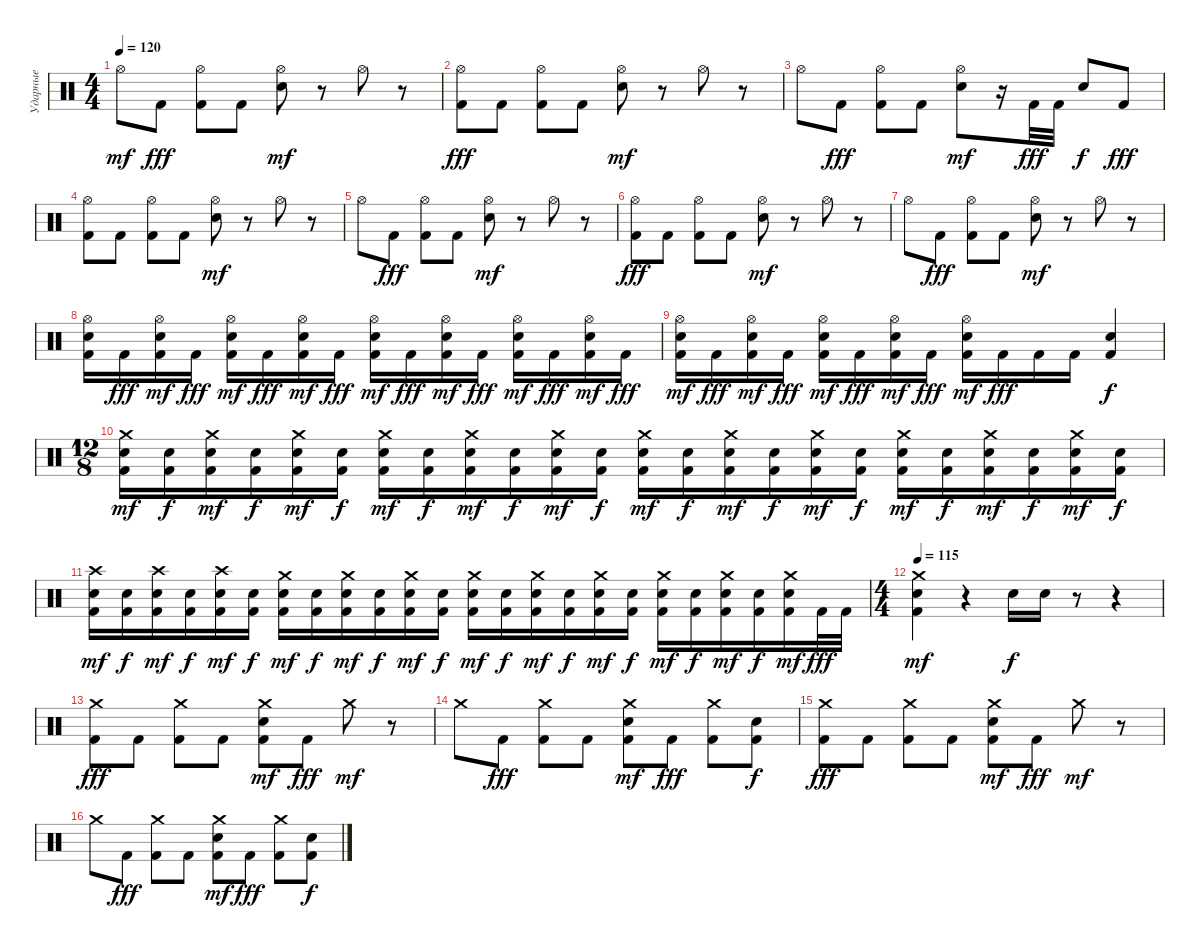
\track ("Ударные" "Ударные") {instrument percussion}
\staff {score}
\articulation defaults
\ts (4 4)
\tempo 120
\clef neutral
\ks c "Hi-Hat (open)".8{dy mf} "Kick (hit) 2".8{dy fff}
("Hi-Hat (open)" "Kick (hit) 2").8 "Kick (hit) 2".8 ("Hi-Hat (open)" "Electric Snare (hit)").8{dy mf} r.8 "Hi-Hat (open)".8 r.8 |
("Hi-Hat (open)" "Kick (hit) 2").8{dy fff} "Kick (hit) 2".8 ("Hi-Hat (open)" "Kick (hit) 2").8 "Kick (hit) 2".8 ("Hi-Hat (open)" "Electric Snare (hit)").8{dy mf} r.8 "Hi-Hat (open)".8 r.8 |
"Hi-Hat (open)".8 "Kick (hit) 2".8{dy fff} ("Hi-Hat (open)" "Kick (hit) 2").8 "Kick (hit) 2".8 ("Hi-Hat (open)" "Electric Snare (hit)").8{dy mf} r.16 "Kick (hit) 2".32{dy fff} "Kick (hit) 2".32 "Electric Snare (hit)".8{dy f} "Kick (hit) 2".8{dy fff} |
("Hi-Hat (open)" "Kick (hit) 2").8 "Kick (hit) 2".8 ("Hi-Hat (open)" "Kick (hit) 2").8 "Kick (hit) 2".8 ("Hi-Hat (open)" "Electric Snare (hit)").8{dy mf} r.8 "Hi-Hat (open)".8 r.8 |
"Hi-Hat (open)".8 "Kick (hit) 2".8{dy fff} ("Hi-Hat (open)" "Kick (hit) 2").8 "Kick (hit) 2".8 ("Hi-Hat (open)" "Electric Snare (hit)").8{dy mf} r.8 "Hi-Hat (open)".8 r.8 |
("Hi-Hat (open)" "Kick (hit) 2").8{dy fff} "Kick (hit) 2".8 ("Hi-Hat (open)" "Kick (hit) 2").8 "Kick (hit) 2".8 ("Hi-Hat (open)" "Electric Snare (hit)").8{dy mf} r.8 "Hi-Hat (open)".8 r.8 |
"Hi-Hat (open)".8 "Kick (hit) 2".8{dy fff} ("Hi-Hat (open)" "Kick (hit) 2").8 "Kick (hit) 2".8 ("Hi-Hat (open)" "Electric Snare (hit)").8{dy mf} r.8 "Hi-Hat (open)".8 r.8 |
("Hi-Hat (open)" "Electric Snare (hit)" "Kick (hit) 2").16 "Kick (hit) 2".16{dy fff} ("Hi-Hat (open)" "Electric Snare (hit)" "Kick (hit) 2").16{dy mf} "Kick (hit) 2".16{dy fff} ("Hi-Hat (open)" "Electric Snare (hit)" "Kick (hit) 2").16{dy mf} "Kick (hit) 2".16{dy fff} ("Hi-Hat (open)" "Electric Snare (hit)" "Kick (hit) 2").16{dy mf} "Kick (hit) 2".16{dy fff} ("Hi-Hat (open)" "Electric Snare (hit)" "Kick (hit) 2").16{dy mf} "Kick (hit) 2".16{dy fff} ("Hi-Hat (open)" "Electric Snare (hit)" "Kick (hit) 2").16{dy mf} "Kick (hit) 2".16{dy fff} ("Hi-Hat (open)" "Electric Snare (hit)" "Kick (hit) 2").16{dy mf} "Kick (hit) 2".16{dy fff} ("Hi-Hat (open)" "Electric Snare (hit)" "Kick (hit) 2").16{dy mf} "Kick (hit) 2".16{dy fff} |
("Hi-Hat (open)" "Electric Snare (hit)" "Kick (hit) 2").16{dy mf} "Kick (hit) 2".16{dy fff} ("Hi-Hat (open)" "Electric Snare (hit)" "Kick (hit) 2").16{dy mf} "Kick (hit) 2".16{dy fff} ("Hi-Hat (open)" "Electric Snare (hit)" "Kick (hit) 2").16{dy mf} "Kick (hit) 2".16{dy fff} ("Hi-Hat (open)" "Electric Snare (hit)" "Kick (hit) 2").16{dy mf} "Kick (hit) 2".16{dy fff} ("Hi-Hat (open)" "Electric Snare (hit)" "Kick (hit) 2").16{dy mf} "Kick (hit) 2".16{dy fff} "Kick (hit) 2".16 "Kick (hit) 2".16 ("Electric Snare (hit)" "Kick (hit) 2").4{dy f} |
\ts (12 8)
("Crash medium (hit)" "Electric Snare (hit)" "Kick (hit) 2").16{dy mf} ("Electric Snare (hit)" "Kick (hit) 2").16{dy f} ("Crash medium (hit)" "Electric Snare (hit)" "Kick (hit) 2").16{dy mf} ("Electric Snare (hit)" "Kick (hit) 2").16{dy f} ("Crash medium (hit)" "Electric Snare (hit)" "Kick (hit) 2").16{dy mf} ("Electric Snare (hit)" "Kick (hit) 2").16{dy f} ("Crash medium (hit)" "Electric Snare (hit)" "Kick (hit) 2").16{dy mf} ("Electric Snare (hit)" "Kick (hit) 2").16{dy f} ("Crash medium (hit)" "Electric Snare (hit)" "Kick (hit) 2").16{dy mf} ("Electric Snare (hit)" "Kick (hit) 2").16{dy f} ("Crash medium (hit)" "Electric Snare (hit)" "Kick (hit) 2").16{dy mf} ("Electric Snare (hit)" "Kick (hit) 2").16{dy f} ("Crash medium (hit)" "Electric Snare (hit)" "Kick (hit) 2").16{dy mf} ("Electric Snare (hit)" "Kick (hit) 2").16{dy f} ("Crash medium (hit)" "Electric Snare (hit)" "Kick (hit) 2").16{dy mf} ("Electric Snare (hit)" "Kick (hit) 2").16{dy f} ("Crash medium (hit)" "Electric Snare (hit)" "Kick (hit) 2").16{dy mf} ("Electric Snare (hit)" "Kick (hit) 2").16{dy f} ("Crash medium (hit)" "Electric Snare (hit)" "Kick (hit) 2").16{dy mf} ("Electric Snare (hit)" "Kick (hit) 2").16{dy f} ("Crash medium (hit)" "Electric Snare (hit)" "Kick (hit) 2").16{dy mf} ("Electric Snare (hit)" "Kick (hit) 2").16{dy f} ("Crash medium (hit)" "Electric Snare (hit)" "Kick (hit) 2").16{dy mf} ("Electric Snare (hit)" "Kick (hit) 2").16{dy f} |
("Crash high (hit)" "Electric Snare (hit)" "Kick (hit) 2").16{dy mf} ("Electric Snare (hit)" "Kick (hit) 2").16{dy f} ("Crash high (hit)" "Electric Snare (hit)" "Kick (hit) 2").16{dy mf} ("Electric Snare (hit)" "Kick (hit) 2").16{dy f} ("Crash high (hit)" "Electric Snare (hit)" "Kick (hit) 2").16{dy mf} ("Electric Snare (hit)" "Kick (hit) 2").16{dy f} ("Crash medium (hit)" "Electric Snare (hit)" "Kick (hit) 2").16{dy mf} ("Electric Snare (hit)" "Kick (hit) 2").16{dy f} ("Crash medium (hit)" "Electric Snare (hit)" "Kick (hit) 2").16{dy mf} ("Electric Snare (hit)" "Kick (hit) 2").16{dy f} ("Crash medium (hit)" "Electric Snare (hit)" "Kick (hit) 2").16{dy mf} ("Electric Snare (hit)" "Kick (hit) 2").16{dy f} ("Crash medium (hit)" "Electric Snare (hit)" "Kick (hit) 2").16{dy mf} ("Electric Snare (hit)" "Kick (hit) 2").16{dy f} ("Crash medium (hit)" "Electric Snare (hit)" "Kick (hit) 2").16{dy mf} ("Electric Snare (hit)" "Kick (hit) 2").16{dy f} ("Crash medium (hit)" "Electric Snare (hit)" "Kick (hit) 2").16{dy mf} ("Electric Snare (hit)" "Kick (hit) 2").16{dy f} ("Crash medium (hit)" "Electric Snare (hit)" "Kick (hit) 2").16{dy mf} ("Electric Snare (hit)" "Kick (hit) 2").16{dy f} ("Crash medium (hit)" "Electric Snare (hit)" "Kick (hit) 2").16{dy mf} ("Electric Snare (hit)" "Kick (hit) 2").16{dy f} ("Crash medium (hit)" "Electric Snare (hit)" "Kick (hit) 2").16{dy mf} "Kick (hit) 2".32{dy fff} "Kick (hit) 2".32 |
\ts (4 4)
\tempo 115
("Crash medium (hit)" "Electric Snare (hit)" "Kick (hit) 2").4{dy mf} r.4 "Electric Snare (hit)".16{dy f} "Electric Snare (hit)".16 r.8 r.4 |
("Crash medium (hit)" "Kick (hit) 2").8{dy fff} "Kick (hit) 2".8 ("Crash medium (hit)" "Kick (hit) 2").8 "Kick (hit) 2".8 ("Crash medium (hit)" "Electric Snare (hit)" "Kick (hit) 2").8{dy mf} "Kick (hit) 2".8{dy fff} "Crash medium (hit)".8{dy mf} r.8 |
"Crash medium (hit)".8 "Kick (hit) 2".8{dy fff} ("Crash medium (hit)" "Kick (hit) 2").8 "Kick (hit) 2".8 ("Crash medium (hit)" "Electric Snare (hit)" "Kick (hit) 2").8{dy mf} "Kick (hit) 2".8{dy fff} ("Crash medium (hit)" "Kick (hit) 2").8 ("Electric Snare (hit)" "Kick (hit) 2").8{dy f} |
("Crash medium (hit)" "Kick (hit) 2").8{dy fff} "Kick (hit) 2".8 ("Crash medium (hit)" "Kick (hit) 2").8 "Kick (hit) 2".8 ("Crash medium (hit)" "Electric Snare (hit)" "Kick (hit) 2").8{dy mf} "Kick (hit) 2".8{dy fff} "Crash medium (hit)".8{dy mf} r.8 |
"Crash medium (hit)".8 "Kick (hit) 2".8{dy fff} ("Crash medium (hit)" "Kick (hit) 2").8 "Kick (hit) 2".8 ("Crash medium (hit)" "Electric Snare (hit)" "Kick (hit) 2").8{dy mf} "Kick (hit) 2".8{dy fff} ("Crash medium (hit)" "Kick (hit) 2").8 ("Electric Snare (hit)" "Kick (hit) 2").8{dy f}
